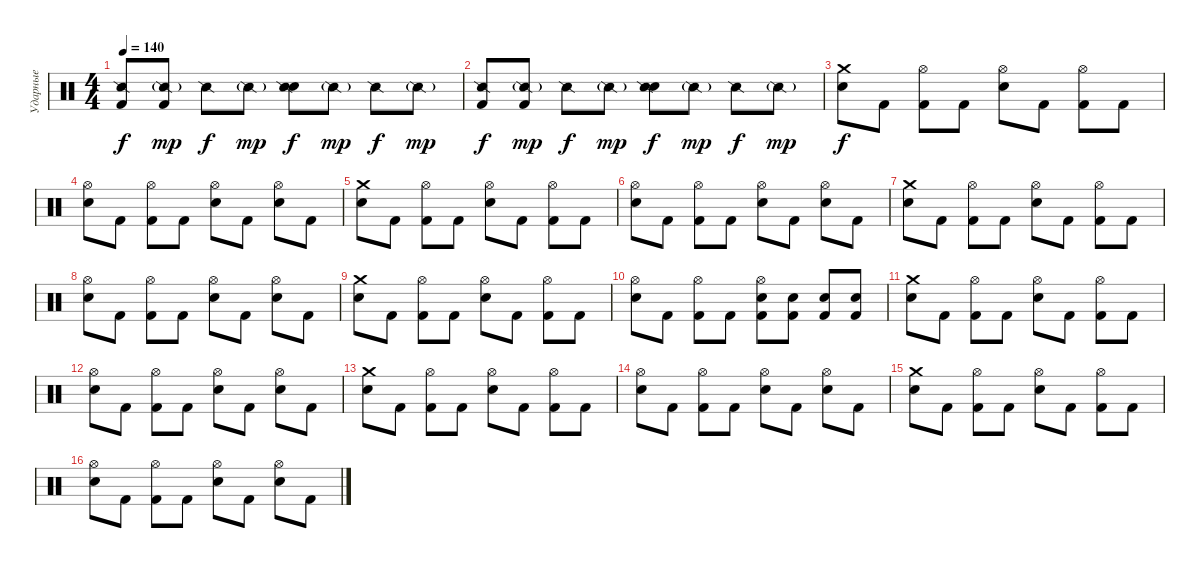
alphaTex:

\track ("Ударные" "Ударные") {instrument percussion}
\staff {score}
\articulation defaults
\ts (4 4)
\tempo 140
\clef neutral
\ks c
("Kick (hit) 2" "Snare (side stick) 2").8{dy f} ("Kick (hit) 2" "Snare (side stick) 2"{g}).8{dy mp} "Snare (side stick) 2".8{dy f} "Snare (side stick) 2"{g}.8{dy mp} ("Electric Snare (hit)" "Snare (side stick) 2").8{dy f} "Snare (side stick) 2"{g}.8{dy mp} "Snare (side stick) 2".8{dy f} "Snare (side stick) 2"{g}.8{dy mp} |
("Kick (hit) 2" "Snare (side stick) 2").8{dy f} ("Kick (hit) 2" "Snare (side stick) 2"{g}).8{dy mp} "Snare (side stick) 2".8{dy f} "Snare (side stick) 2"{g}.8{dy mp} ("Electric Snare (hit)" "Snare (side stick) 2").8{dy f} "Snare (side stick) 2"{g}.8{dy mp} "Snare (side stick) 2".8{dy f} "Snare (side stick) 2"{g}.8{dy mp} |
("Crash medium (hit)" "Electric Snare (hit)").8{dy f} "Kick (hit) 2".8 ("Hi-Hat (open)" "Kick (hit) 2").8 "Kick (hit) 2".8 ("Hi-Hat (open)" "Electric Snare (hit)").8 "Kick (hit) 2".8 ("Hi-Hat (open)" "Kick (hit) 2").8 "Kick (hit) 2".8 |
("Hi-Hat (open)" "Electric Snare (hit)").8 "Kick (hit) 2".8 ("Hi-Hat (open)" "Kick (hit) 2").8 "Kick (hit) 2".8 ("Hi-Hat (open)" "Electric Snare (hit)").8 "Kick (hit) 2".8 ("Hi-Hat (open)" "Electric Snare (hit)").8 "Kick (hit) 2".8 |
("Crash medium (hit)" "Electric Snare (hit)").8 "Kick (hit) 2".8 ("Hi-Hat (open)" "Kick (hit) 2").8 "Kick (hit) 2".8 ("Hi-Hat (open)" "Electric Snare (hit)").8 "Kick (hit) 2".8 ("Hi-Hat (open)" "Kick (hit) 2").8 "Kick (hit) 2".8 |
("Hi-Hat (open)" "Electric Snare (hit)").8 "Kick (hit) 2".8 ("Hi-Hat (open)" "Kick (hit) 2").8 "Kick (hit) 2".8 ("Hi-Hat (open)" "Electric Snare (hit)").8 "Kick (hit) 2".8 ("Hi-Hat (open)" "Electric Snare (hit)").8 "Kick (hit) 2".8 |
("Crash medium (hit)" "Electric Snare (hit)").8 "Kick (hit) 2".8 ("Hi-Hat (open)" "Kick (hit) 2").8 "Kick (hit) 2".8 ("Hi-Hat (open)" "Electric Snare (hit)").8 "Kick (hit) 2".8 ("Hi-Hat (open)" "Kick (hit) 2").8 "Kick (hit) 2".8 |
("Hi-Hat (open)" "Electric Snare (hit)").8 "Kick (hit) 2".8 ("Hi-Hat (open)" "Kick (hit) 2").8 "Kick (hit) 2".8 ("Hi-Hat (open)" "Electric Snare (hit)").8 "Kick (hit) 2".8 ("Hi-Hat (open)" "Electric Snare (hit)").8 "Kick (hit) 2".8 |
("Crash medium (hit)" "Electric Snare (hit)").8 "Kick (hit) 2".8 ("Hi-Hat (open)" "Kick (hit) 2").8 "Kick (hit) 2".8 ("Hi-Hat (open)" "Electric Snare (hit)").8 "Kick (hit) 2".8 ("Hi-Hat (open)" "Kick (hit) 2").8 "Kick (hit) 2".8 |
("Hi-Hat (open)" "Electric Snare (hit)").8 "Kick (hit) 2".8 ("Hi-Hat (open)" "Kick (hit) 2").8 "Kick (hit) 2".8 ("Hi-Hat (open)" "Electric Snare (hit)" "Kick (hit) 2").8 ("Electric Snare (hit)" "Kick (hit) 2").8 ("Electric Snare (hit)" "Kick (hit) 2").8 ("Electric Snare (hit)" "Kick (hit) 2").8 |
("Crash medium (hit)" "Electric Snare (hit)").8 "Kick (hit) 2".8 ("Hi-Hat (open)" "Kick (hit) 2").8 "Kick (hit) 2".8 ("Hi-Hat (open)" "Electric Snare (hit)").8 "Kick (hit) 2".8 ("Hi-Hat (open)" "Kick (hit) 2").8 "Kick (hit) 2".8 |
("Hi-Hat (open)" "Electric Snare (hit)").8 "Kick (hit) 2".8 ("Hi-Hat (open)" "Kick (hit) 2").8 "Kick (hit) 2".8 ("Hi-Hat (open)" "Electric Snare (hit)").8 "Kick (hit) 2".8 ("Hi-Hat (open)" "Electric Snare (hit)").8 "Kick (hit) 2".8 |
("Crash medium (hit)" "Electric Snare (hit)").8 "Kick (hit) 2".8 ("Hi-Hat (open)" "Kick (hit) 2").8 "Kick (hit) 2".8 ("Hi-Hat (open)" "Electric Snare (hit)").8 "Kick (hit) 2".8 ("Hi-Hat (open)" "Kick (hit) 2").8 "Kick (hit) 2".8 |
("Hi-Hat (open)" "Electric Snare (hit)").8 "Kick (hit) 2".8 ("Hi-Hat (open)" "Kick (hit) 2").8 "Kick (hit) 2".8 ("Hi-Hat (open)" "Electric Snare (hit)").8 "Kick (hit) 2".8 ("Hi-Hat (open)" "Electric Snare (hit)").8 "Kick (hit) 2".8 |
("Crash medium (hit)" "Electric Snare (hit)").8 "Kick (hit) 2".8 ("Hi-Hat (open)" "Kick (hit) 2").8 "Kick (hit) 2".8 ("Hi-Hat (open)" "Electric Snare (hit)").8 "Kick (hit) 2".8 ("Hi-Hat (open)" "Kick (hit) 2").8 "Kick (hit) 2".8 |
("Hi-Hat (open)" "Electric Snare (hit)").8 "Kick (hit) 2".8 ("Hi-Hat (open)" "Kick (hit) 2").8 "Kick (hit) 2".8 ("Hi-Hat (open)" "Electric Snare (hit)").8 "Kick (hit) 2".8 ("Hi-Hat (open)" "Electric Snare (hit)").8 "Kick (hit) 2".8
